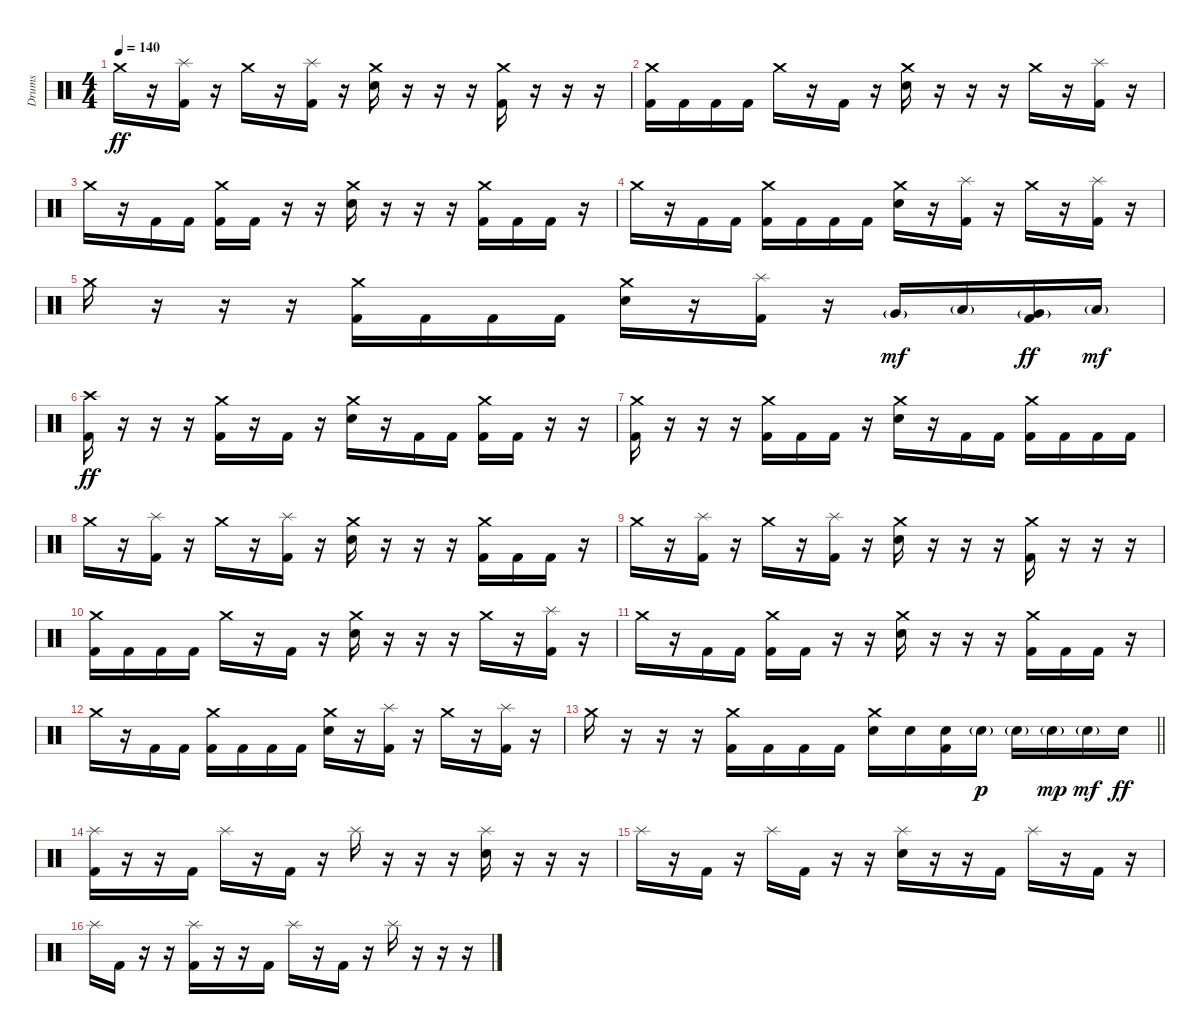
\track ("Drums" "Drums") {instrument percussion}
\staff {score}
\articulation defaults
\ts (4 4)
\tempo 140
\clef neutral
\ks c "Crash medium (hit)".16{dy ff}
r.16 ("Splash (hit)" "Kick (hit) 2").16 r.16 "Crash medium (hit)".16 r.16 ("Splash (hit)" "Kick (hit) 2").16 r.16 ("Crash medium (hit)" "Electric Snare (hit)").16 r.16 r.16 r.16 ("Crash medium (hit)" "Kick (hit) 2").16 r.16 r.16 r.16 |
("Crash medium (hit)" "Kick (hit) 2").16 "Kick (hit) 2".16 "Kick (hit) 2".16 "Kick (hit) 2".16 "Crash medium (hit)".16 r.16 "Kick (hit) 2".16 r.16 ("Crash medium (hit)" "Electric Snare (hit)").16 r.16 r.16 r.16 "Crash medium (hit)".16 r.16 ("Splash (hit)" "Kick (hit) 2").16 r.16 |
"Crash medium (hit)".16 r.16 "Kick (hit) 2".16 "Kick (hit) 2".16 ("Crash medium (hit)" "Kick (hit) 2").16 "Kick (hit) 2".16 r.16 r.16 ("Crash medium (hit)" "Electric Snare (hit)").16 r.16 r.16 r.16 ("Crash medium (hit)" "Kick (hit) 2").16 "Kick (hit) 2".16 "Kick (hit) 2".16 r.16 |
"Crash medium (hit)".16 r.16 "Kick (hit) 2".16 "Kick (hit) 2".16 ("Crash medium (hit)" "Kick (hit) 2").16 "Kick (hit) 2".16 "Kick (hit) 2".16 "Kick (hit) 2".16 ("Crash medium (hit)" "Electric Snare (hit)").16 r.16 ("Splash (hit)" "Kick (hit) 2").16 r.16 "Crash medium (hit)".16 r.16 ("Splash (hit)" "Kick (hit) 2").16 r.16 |
"Crash medium (hit)".16 r.16 r.16 r.16 ("Crash medium (hit)" "Kick (hit) 2").16 "Kick (hit) 2".16 "Kick (hit) 2".16 "Kick (hit) 2".16 ("Crash medium (hit)" "Electric Snare (hit)").16 r.16 ("Splash (hit)" "Kick (hit) 2").16 r.16 "Very Low Tom (hit)"{g}.16{dy mf} "Low Tom (hit)"{g}.16 ("Very Low Tom (hit)"{g} "Kick (hit) 2").16{dy ff} "Low Floor Tom (hit)"{g}.16{dy mf} |
("Crash high (hit)" "Kick (hit) 2").16{dy ff} r.16 r.16 r.16 ("Crash medium (hit)" "Kick (hit) 2").16 r.16 "Kick (hit) 2".16 r.16 ("Crash medium (hit)" "Electric Snare (hit)").16 r.16 "Kick (hit) 2".16 "Kick (hit) 2".16 ("Crash medium (hit)" "Kick (hit) 2").16 "Kick (hit) 2".16 r.16 r.16 |
("Crash medium (hit)" "Kick (hit) 2").16 r.16 r.16 r.16 ("Crash medium (hit)" "Kick (hit) 2").16 "Kick (hit) 2".16 "Kick (hit) 2".16 r.16 ("Crash medium (hit)" "Electric Snare (hit)").16 r.16 "Kick (hit) 2".16 "Kick (hit) 2".16 ("Crash medium (hit)" "Kick (hit) 2").16 "Kick (hit) 2".16 "Kick (hit) 2".16 "Kick (hit) 2".16 |
"Crash medium (hit)".16 r.16 ("Splash (hit)" "Kick (hit) 2").16 r.16 "Crash medium (hit)".16 r.16 ("Splash (hit)" "Kick (hit) 2").16 r.16 ("Crash medium (hit)" "Electric Snare (hit)").16 r.16 r.16 r.16 ("Crash medium (hit)" "Kick (hit) 2").16 "Kick (hit) 2".16 "Kick (hit) 2".16 r.16 |
"Crash medium (hit)".16 r.16 ("Splash (hit)" "Kick (hit) 2").16 r.16 "Crash medium (hit)".16 r.16 ("Splash (hit)" "Kick (hit) 2").16 r.16 ("Crash medium (hit)" "Electric Snare (hit)").16 r.16 r.16 r.16 ("Crash medium (hit)" "Kick (hit) 2").16 r.16 r.16 r.16 |
("Crash medium (hit)" "Kick (hit) 2").16 "Kick (hit) 2".16 "Kick (hit) 2".16 "Kick (hit) 2".16 "Crash medium (hit)".16 r.16 "Kick (hit) 2".16 r.16 ("Crash medium (hit)" "Electric Snare (hit)").16 r.16 r.16 r.16 "Crash medium (hit)".16 r.16 ("Splash (hit)" "Kick (hit) 2").16 r.16 |
"Crash medium (hit)".16 r.16 "Kick (hit) 2".16 "Kick (hit) 2".16 ("Crash medium (hit)" "Kick (hit) 2").16 "Kick (hit) 2".16 r.16 r.16 ("Crash medium (hit)" "Electric Snare (hit)").16 r.16 r.16 r.16 ("Crash medium (hit)" "Kick (hit) 2").16 "Kick (hit) 2".16 "Kick (hit) 2".16 r.16 |
"Crash medium (hit)".16 r.16 "Kick (hit) 2".16 "Kick (hit) 2".16 ("Crash medium (hit)" "Kick (hit) 2").16 "Kick (hit) 2".16 "Kick (hit) 2".16 "Kick (hit) 2".16 ("Crash medium (hit)" "Electric Snare (hit)").16 r.16 ("Splash (hit)" "Kick (hit) 2").16 r.16 "Crash medium (hit)".16 r.16 ("Splash (hit)" "Kick (hit) 2").16 r.16 |
\barLineRight lightlight "Crash medium (hit)".16
r.16 r.16 r.16 ("Crash medium (hit)" "Kick (hit) 2").16 "Kick (hit) 2".16 "Kick (hit) 2".16 "Kick (hit) 2".16 ("Crash medium (hit)" "Electric Snare (hit)").16 "Electric Snare (hit)".16 ("Electric Snare (hit)" "Kick (hit) 2").16 "Electric Snare (hit)"{g}.16{dy p} "Electric Snare (hit)"{g}.16 "Electric Snare (hit)"{g}.16{dy mp} "Electric Snare (hit)"{g}.16{dy mf} "Electric Snare (hit)".16{dy ff} |
\section ("" "")
("Splash (hit)" "Kick (hit) 2").16 r.16 r.16 "Kick (hit) 2".16 "Splash (hit)".16 r.16 "Kick (hit) 2".16 r.16 "Splash (hit)".16 r.16 r.16 r.16 ("Splash (hit)" "Electric Snare (hit)").16 r.16 r.16 r.16 |
"Splash (hit)".16 r.16 "Kick (hit) 2".16 r.16 "Splash (hit)".16 "Kick (hit) 2".16 r.16 r.16 ("Splash (hit)" "Electric Snare (hit)").16 r.16 r.16 "Kick (hit) 2".16 "Splash (hit)".16 r.16 "Kick (hit) 2".16 r.16 |
"Splash (hit)".16 "Kick (hit) 2".16 r.16 r.16 ("Splash (hit)" "Kick (hit) 2").16 r.16 r.16 "Kick (hit) 2".16 "Splash (hit)".16 r.16 "Kick (hit) 2".16 r.16 "Splash (hit)".16 r.16 r.16 r.16
